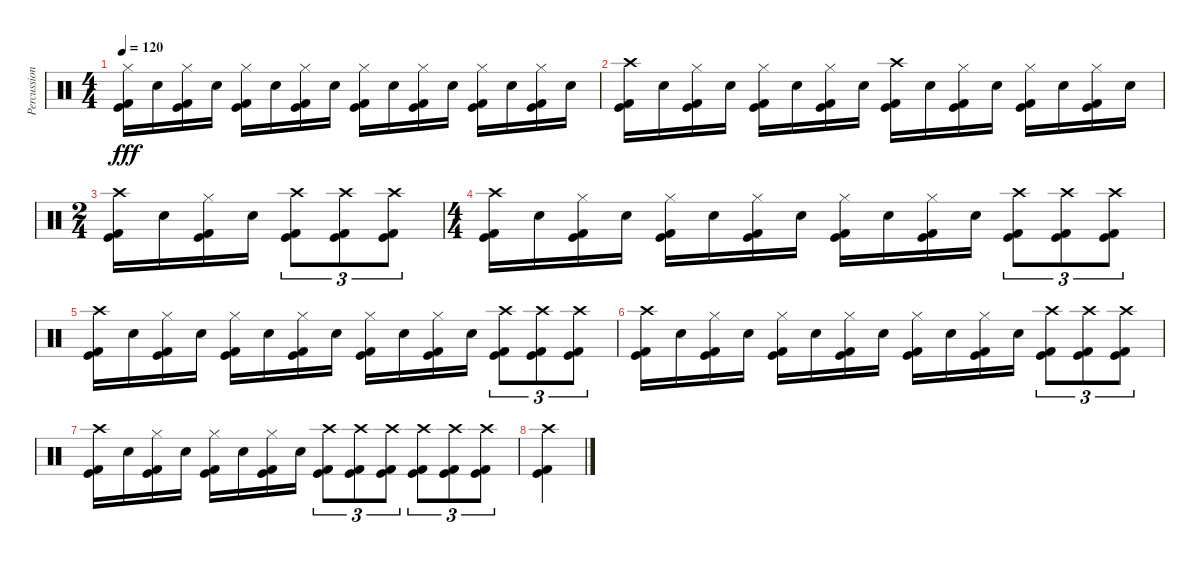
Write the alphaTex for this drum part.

\track ("Percussion" "Percussion") {instrument percussion}
\staff {score}
\articulation defaults
\ts (4 4)
\tempo 120
\clef neutral
\ks c
("Hi-Hat (closed)" "Kick (hit) 2" "Kick (hit)").16{dy fff} "Electric Snare (hit)".16 ("Hi-Hat (closed)" "Kick (hit) 2" "Kick (hit)").16 "Electric Snare (hit)".16 ("Hi-Hat (closed)" "Kick (hit) 2" "Kick (hit)").16 "Electric Snare (hit)".16 ("Hi-Hat (closed)" "Kick (hit) 2" "Kick (hit)").16 "Electric Snare (hit)".16 ("Hi-Hat (closed)" "Kick (hit) 2" "Kick (hit)").16 "Electric Snare (hit)".16 ("Hi-Hat (closed)" "Kick (hit) 2" "Kick (hit)").16 "Electric Snare (hit)".16 ("Hi-Hat (closed)" "Kick (hit) 2" "Kick (hit)").16 "Electric Snare (hit)".16 ("Hi-Hat (closed)" "Kick (hit) 2" "Kick (hit)").16 "Electric Snare (hit)".16 |
("Crash high (hit)" "Kick (hit) 2" "Kick (hit)").16 "Electric Snare (hit)".16 ("Hi-Hat (closed)" "Kick (hit) 2" "Kick (hit)").16 "Electric Snare (hit)".16 ("Hi-Hat (closed)" "Kick (hit) 2" "Kick (hit)").16 "Electric Snare (hit)".16 ("Hi-Hat (closed)" "Kick (hit) 2" "Kick (hit)").16 "Electric Snare (hit)".16 ("Crash high (hit)" "Kick (hit) 2" "Kick (hit)").16 "Electric Snare (hit)".16 ("Hi-Hat (closed)" "Kick (hit) 2" "Kick (hit)").16 "Electric Snare (hit)".16 ("Hi-Hat (closed)" "Kick (hit) 2" "Kick (hit)").16 "Electric Snare (hit)".16 ("Hi-Hat (closed)" "Kick (hit) 2" "Kick (hit)").16 "Electric Snare (hit)".16 |
\ts (2 4)
("Crash high (hit)" "Kick (hit) 2" "Kick (hit)").16 "Electric Snare (hit)".16 ("Hi-Hat (closed)" "Kick (hit) 2" "Kick (hit)").16 "Electric Snare (hit)".16 ("Crash high (hit)" "Kick (hit) 2" "Kick (hit)").8{tu (3 2)} ("Crash high (hit)" "Kick (hit) 2" "Kick (hit)").8{tu (3 2)} ("Crash high (hit)" "Kick (hit) 2" "Kick (hit)").8{tu (3 2)} |
\ts (4 4)
("Crash high (hit)" "Kick (hit) 2" "Kick (hit)").16 "Electric Snare (hit)".16 ("Hi-Hat (closed)" "Kick (hit) 2" "Kick (hit)").16 "Electric Snare (hit)".16 ("Hi-Hat (closed)" "Kick (hit) 2" "Kick (hit)").16 "Electric Snare (hit)".16 ("Hi-Hat (closed)" "Kick (hit) 2" "Kick (hit)").16 "Electric Snare (hit)".16 ("Hi-Hat (closed)" "Kick (hit) 2" "Kick (hit)").16 "Electric Snare (hit)".16 ("Hi-Hat (closed)" "Kick (hit) 2" "Kick (hit)").16 "Electric Snare (hit)".16 ("Crash high (hit)" "Kick (hit) 2" "Kick (hit)").8{tu (3 2)} ("Crash high (hit)" "Kick (hit) 2" "Kick (hit)").8{tu (3 2)} ("Crash high (hit)" "Kick (hit) 2" "Kick (hit)").8{tu (3 2)} |
("Crash high (hit)" "Kick (hit) 2" "Kick (hit)").16 "Electric Snare (hit)".16 ("Hi-Hat (closed)" "Kick (hit) 2" "Kick (hit)").16 "Electric Snare (hit)".16 ("Hi-Hat (closed)" "Kick (hit) 2" "Kick (hit)").16 "Electric Snare (hit)".16 ("Hi-Hat (closed)" "Kick (hit) 2" "Kick (hit)").16 "Electric Snare (hit)".16 ("Hi-Hat (closed)" "Kick (hit) 2" "Kick (hit)").16 "Electric Snare (hit)".16 ("Hi-Hat (closed)" "Kick (hit) 2" "Kick (hit)").16 "Electric Snare (hit)".16 ("Crash high (hit)" "Kick (hit) 2" "Kick (hit)").8{tu (3 2)} ("Crash high (hit)" "Kick (hit) 2" "Kick (hit)").8{tu (3 2)} ("Crash high (hit)" "Kick (hit) 2" "Kick (hit)").8{tu (3 2)} |
("Crash high (hit)" "Kick (hit) 2" "Kick (hit)").16 "Electric Snare (hit)".16 ("Hi-Hat (closed)" "Kick (hit) 2" "Kick (hit)").16 "Electric Snare (hit)".16 ("Hi-Hat (closed)" "Kick (hit) 2" "Kick (hit)").16 "Electric Snare (hit)".16 ("Hi-Hat (closed)" "Kick (hit) 2" "Kick (hit)").16 "Electric Snare (hit)".16 ("Hi-Hat (closed)" "Kick (hit) 2" "Kick (hit)").16 "Electric Snare (hit)".16 ("Hi-Hat (closed)" "Kick (hit) 2" "Kick (hit)").16 "Electric Snare (hit)".16 ("Crash high (hit)" "Kick (hit) 2" "Kick (hit)").8{tu (3 2)} ("Crash high (hit)" "Kick (hit) 2" "Kick (hit)").8{tu (3 2)} ("Crash high (hit)" "Kick (hit) 2" "Kick (hit)").8{tu (3 2)} |
("Crash high (hit)" "Kick (hit) 2" "Kick (hit)").16 "Electric Snare (hit)".16 ("Hi-Hat (closed)" "Kick (hit) 2" "Kick (hit)").16 "Electric Snare (hit)".16 ("Hi-Hat (closed)" "Kick (hit) 2" "Kick (hit)").16 "Electric Snare (hit)".16 ("Hi-Hat (closed)" "Kick (hit) 2" "Kick (hit)").16 "Electric Snare (hit)".16 ("Crash high (hit)" "Kick (hit) 2" "Kick (hit)").8{tu (3 2)} ("Crash high (hit)" "Kick (hit) 2" "Kick (hit)").8{tu (3 2)} ("Crash high (hit)" "Kick (hit) 2" "Kick (hit)").8{tu (3 2)} ("Crash high (hit)" "Kick (hit) 2" "Kick (hit)").8{tu (3 2)} ("Crash high (hit)" "Kick (hit) 2" "Kick (hit)").8{tu (3 2)} ("Crash high (hit)" "Kick (hit) 2" "Kick (hit)").8{tu (3 2)} |
("Crash high (hit)" "Kick (hit) 2" "Kick (hit)").4
